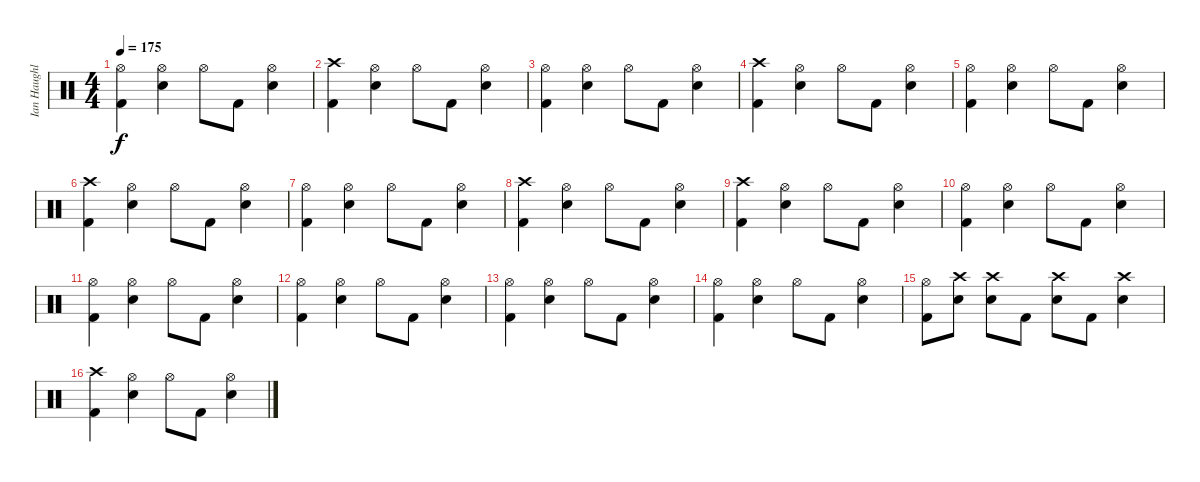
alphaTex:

\track ("Ian Haughland" "Ian Haughl") {instrument percussion}
\staff {score}
\articulation defaults
\ts (4 4)
\tempo 175
\clef neutral
\ks c
("Hi-Hat (open)" "Kick (hit) 2").4{dy f} ("Hi-Hat (open)" "Snare (hit) 2").4 "Hi-Hat (open)".8 "Kick (hit) 2".8 ("Hi-Hat (open)" "Snare (hit) 2").4 |
("Crash high (hit)" "Kick (hit) 2").4 ("Hi-Hat (open)" "Snare (hit) 2").4 "Hi-Hat (open)".8 "Kick (hit) 2".8 ("Hi-Hat (open)" "Snare (hit) 2").4 |
("Hi-Hat (open)" "Kick (hit) 2").4 ("Hi-Hat (open)" "Snare (hit) 2").4 "Hi-Hat (open)".8 "Kick (hit) 2".8 ("Hi-Hat (open)" "Snare (hit) 2").4 |
("Crash high (hit)" "Kick (hit) 2").4 ("Hi-Hat (open)" "Snare (hit) 2").4 "Hi-Hat (open)".8 "Kick (hit) 2".8 ("Hi-Hat (open)" "Snare (hit) 2").4 |
("Hi-Hat (open)" "Kick (hit) 2").4 ("Hi-Hat (open)" "Snare (hit) 2").4 "Hi-Hat (open)".8 "Kick (hit) 2".8 ("Hi-Hat (open)" "Snare (hit) 2").4 |
("Crash high (hit)" "Kick (hit) 2").4 ("Hi-Hat (open)" "Snare (hit) 2").4 "Hi-Hat (open)".8 "Kick (hit) 2".8 ("Hi-Hat (open)" "Snare (hit) 2").4 |
("Hi-Hat (open)" "Kick (hit) 2").4 ("Hi-Hat (open)" "Snare (hit) 2").4 "Hi-Hat (open)".8 "Kick (hit) 2".8 ("Hi-Hat (open)" "Snare (hit) 2").4 |
("Crash high (hit)" "Kick (hit) 2").4 ("Hi-Hat (open)" "Snare (hit) 2").4 "Hi-Hat (open)".8 "Kick (hit) 2".8 ("Hi-Hat (open)" "Snare (hit) 2").4 |
("Crash high (hit)" "Kick (hit) 2").4 ("Hi-Hat (open)" "Snare (hit) 2").4 "Hi-Hat (open)".8 "Kick (hit) 2".8 ("Hi-Hat (open)" "Snare (hit) 2").4 |
("Hi-Hat (open)" "Kick (hit) 2").4 ("Hi-Hat (open)" "Snare (hit) 2").4 "Hi-Hat (open)".8 "Kick (hit) 2".8 ("Hi-Hat (open)" "Snare (hit) 2").4 |
("Hi-Hat (open)" "Kick (hit) 2").4 ("Hi-Hat (open)" "Snare (hit) 2").4 "Hi-Hat (open)".8 "Kick (hit) 2".8 ("Hi-Hat (open)" "Snare (hit) 2").4 |
("Hi-Hat (open)" "Kick (hit) 2").4 ("Hi-Hat (open)" "Snare (hit) 2").4 "Hi-Hat (open)".8 "Kick (hit) 2".8 ("Hi-Hat (open)" "Snare (hit) 2").4 |
("Hi-Hat (open)" "Kick (hit) 2").4 ("Hi-Hat (open)" "Snare (hit) 2").4 "Hi-Hat (open)".8 "Kick (hit) 2".8 ("Hi-Hat (open)" "Snare (hit) 2").4 |
("Hi-Hat (open)" "Kick (hit) 2").4 ("Hi-Hat (open)" "Snare (hit) 2").4 "Hi-Hat (open)".8 "Kick (hit) 2".8 ("Hi-Hat (open)" "Snare (hit) 2").4 |
("Hi-Hat (open)" "Kick (hit) 2").8 ("Crash high (hit)" "Snare (hit) 2").8 ("Crash high (hit)" "Snare (hit) 2").8 "Kick (hit) 2".8 ("Crash high (hit)" "Snare (hit) 2").8 "Kick (hit) 2".8 ("Crash high (hit)" "Snare (hit) 2").4 |
("Crash high (hit)" "Kick (hit) 2").4 ("Hi-Hat (open)" "Snare (hit) 2").4 "Hi-Hat (open)".8 "Kick (hit) 2".8 ("Hi-Hat (open)" "Snare (hit) 2").4
